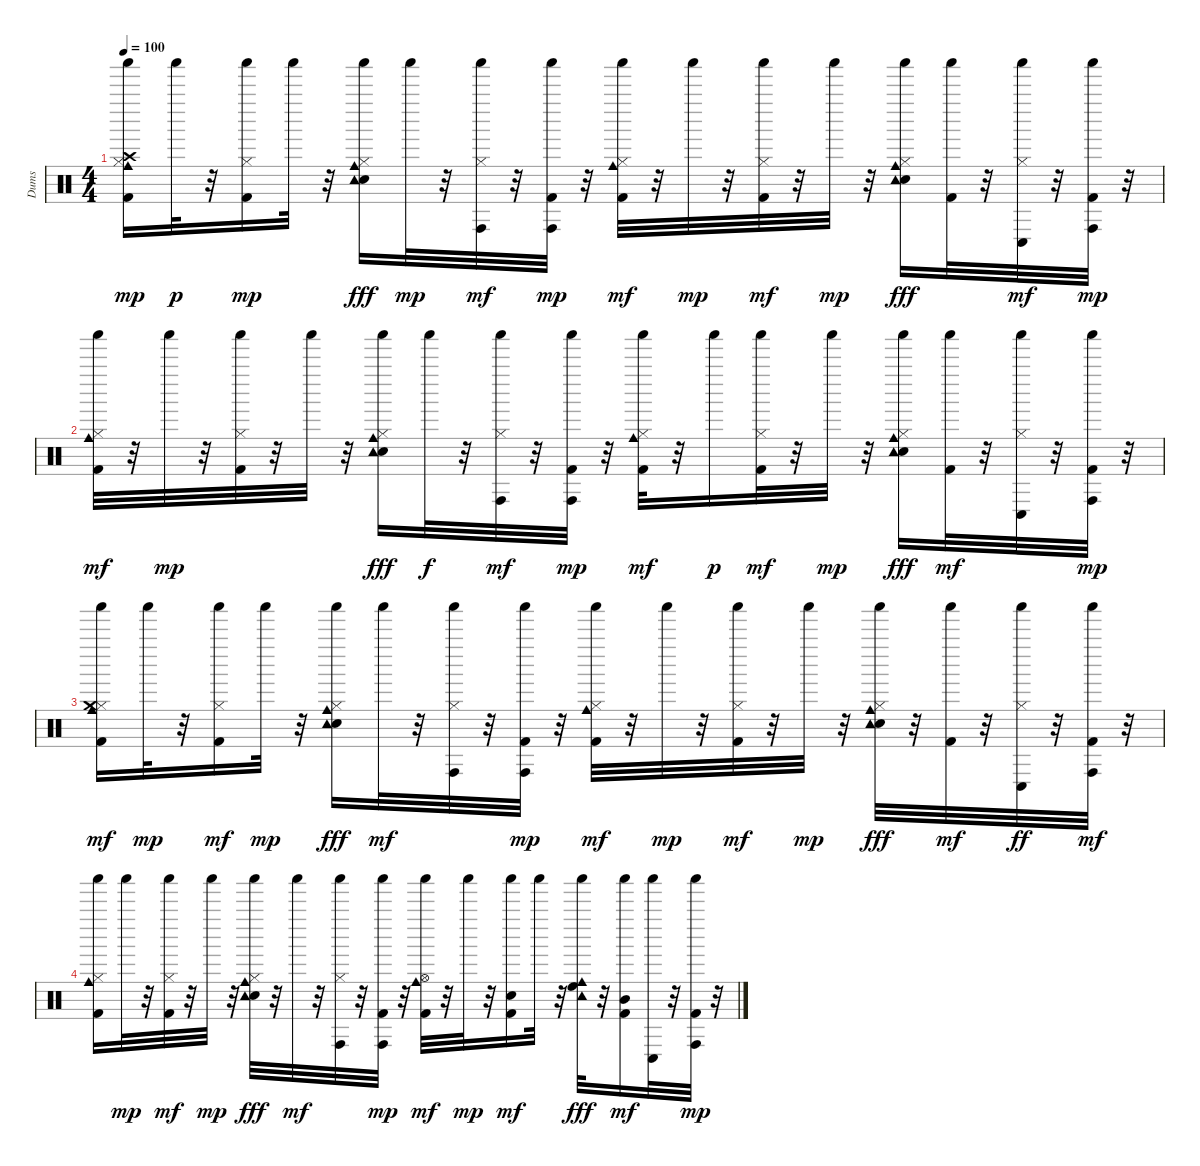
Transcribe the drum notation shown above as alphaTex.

\track ("Dums" "Dums") {instrument percussion}
\staff {score}
\articulation defaults
\ts (4 4)
\tempo 100
\clef neutral
\ks c
("Kick (hit) 2" "Hi-Hat (closed)" "Cowbell medium (hit)" "Crash high (hit)" "Shaker (hit)").16{dy mp} "Shaker (hit)".32{dy p} r.32 ("Kick (hit) 2" "Hi-Hat (closed)" "Shaker (hit)").16{dy mp} "Shaker (hit)".32 r.32 ("Electric Snare (hit)" "Hi-Hat (closed)" "Cowbell medium (hit)" "Shaker (hit)" "Tambourine (hit)").16{dy fff} "Shaker (hit)".32{dy mp} r.32 ("Hi-Hat (closed)" "Conga high (hit)" "Shaker (hit)").32{dy mf} r.32 ("Kick (hit) 2" "Conga high (hit)" "Shaker (hit)").32{dy mp} r.32 ("Kick (hit) 2" "Hi-Hat (closed)" "Cowbell medium (hit)" "Shaker (hit)").32{dy mf} r.32 "Shaker (hit)".32{dy mp} r.32 ("Kick (hit) 2" "Hi-Hat (closed)" "Shaker (hit)").32{dy mf} r.32 "Shaker (hit)".32{dy mp} r.32 ("Electric Snare (hit)" "Hi-Hat (closed)" "Cowbell medium (hit)" "Shaker (hit)" "Tambourine (hit)").16{dy fff} ("Kick (hit) 2" "Shaker (hit)").32 r.32 ("Hi-Hat (closed)" "Conga low (hit)" "Shaker (hit)").32{dy mf} r.32 ("Kick (hit) 2" "Conga high (hit)" "Shaker (hit)").32{dy mp} r.32 |
("Kick (hit) 2" "Hi-Hat (closed)" "Cowbell medium (hit)" "Shaker (hit)").32{dy mf} r.32 "Shaker (hit)".32{dy mp} r.32 ("Kick (hit) 2" "Hi-Hat (closed)" "Shaker (hit)").32 r.32 "Shaker (hit)".32 r.32 ("Electric Snare (hit)" "Hi-Hat (closed)" "Cowbell medium (hit)" "Shaker (hit)" "Tambourine (hit)").16{dy fff} "Shaker (hit)".32{dy f} r.32 ("Hi-Hat (closed)" "Conga high (hit)" "Shaker (hit)").32{dy mf} r.32 ("Kick (hit) 2" "Conga high (hit)" "Shaker (hit)").32{dy mp} r.32 ("Kick (hit) 2" "Hi-Hat (closed)" "Cowbell medium (hit)" "Shaker (hit)").32{dy mf} r.32 "Shaker (hit)".16{dy p} ("Kick (hit) 2" "Hi-Hat (closed)" "Shaker (hit)").32{dy mf} r.32 "Shaker (hit)".32{dy mp} r.32 ("Electric Snare (hit)" "Hi-Hat (closed)" "Cowbell medium (hit)" "Shaker (hit)" "Tambourine (hit)").16{dy fff} ("Kick (hit) 2" "Shaker (hit)").32{dy mf} r.32 ("Hi-Hat (closed)" "Conga low (hit)" "Shaker (hit)").32 r.32 ("Kick (hit) 2" "Conga high (hit)" "Shaker (hit)").32{dy mp} r.32 |
("Kick (hit) 2" "Hi-Hat (closed)" "Cowbell medium (hit)" "Crash medium (hit)" "Shaker (hit)").16{dy mf} "Shaker (hit)".32{dy mp} r.32 ("Kick (hit) 2" "Hi-Hat (closed)" "Shaker (hit)").16{dy mf} "Shaker (hit)".32{dy mp} r.32 ("Electric Snare (hit)" "Hi-Hat (closed)" "Cowbell medium (hit)" "Shaker (hit)" "Tambourine (hit)").16{dy fff} "Shaker (hit)".32{dy mf} r.32 ("Hi-Hat (closed)" "Conga high (hit)" "Shaker (hit)").32 r.32 ("Kick (hit) 2" "Conga high (hit)" "Shaker (hit)").32{dy mp} r.32 ("Kick (hit) 2" "Hi-Hat (closed)" "Cowbell medium (hit)" "Shaker (hit)").32{dy mf} r.32 "Shaker (hit)".32{dy mp} r.32 ("Kick (hit) 2" "Hi-Hat (closed)" "Shaker (hit)").32{dy mf} r.32 "Shaker (hit)".32{dy mp} r.32 ("Electric Snare (hit)" "Hi-Hat (closed)" "Cowbell medium (hit)" "Shaker (hit)" "Tambourine (hit)").32{dy fff} r.32 ("Kick (hit) 2" "Shaker (hit)").32{dy mf} r.32 ("Hi-Hat (closed)" "Conga low (hit)" "Shaker (hit)").32{dy ff} r.32 ("Kick (hit) 2" "Conga high (hit)" "Shaker (hit)").32{dy mf} r.32 |
("Kick (hit) 2" "Hi-Hat (closed)" "Cowbell medium (hit)" "Shaker (hit)").16 "Shaker (hit)".32{dy mp} r.32 ("Kick (hit) 2" "Hi-Hat (closed)" "Shaker (hit)").32{dy mf} r.32 "Shaker (hit)".32{dy mp} r.32 ("Electric Snare (hit)" "Hi-Hat (closed)" "Cowbell medium (hit)" "Shaker (hit)" "Tambourine (hit)").32{dy fff} r.32 "Shaker (hit)".32{dy mf} r.32 ("Hi-Hat (closed)" "Conga high (hit)" "Shaker (hit)").32 r.32 ("Kick (hit) 2" "Conga high (hit)" "Shaker (hit)").32{dy mp} r.32 ("Kick (hit) 2" "Hi-Hat (open)" "Cowbell medium (hit)" "Shaker (hit)").32{dy mf} r.32 "Shaker (hit)".32{dy mp} r.32 ("Kick (hit) 2" "Electric Snare (hit)" "Shaker (hit)").16{dy mf} "Shaker (hit)".32 r.32 ("High Floor Tom (hit)" "Cowbell medium (hit)" "Shaker (hit)" "Tambourine (hit)").32{dy fff} r.32 ("Kick (hit) 2" "Mid Tom (hit)" "Shaker (hit)").16{dy mf} ("Conga low (hit)" "Shaker (hit)").32 r.32 ("Kick (hit) 2" "Conga high (hit)" "Shaker (hit)").32{dy mp} r.32
